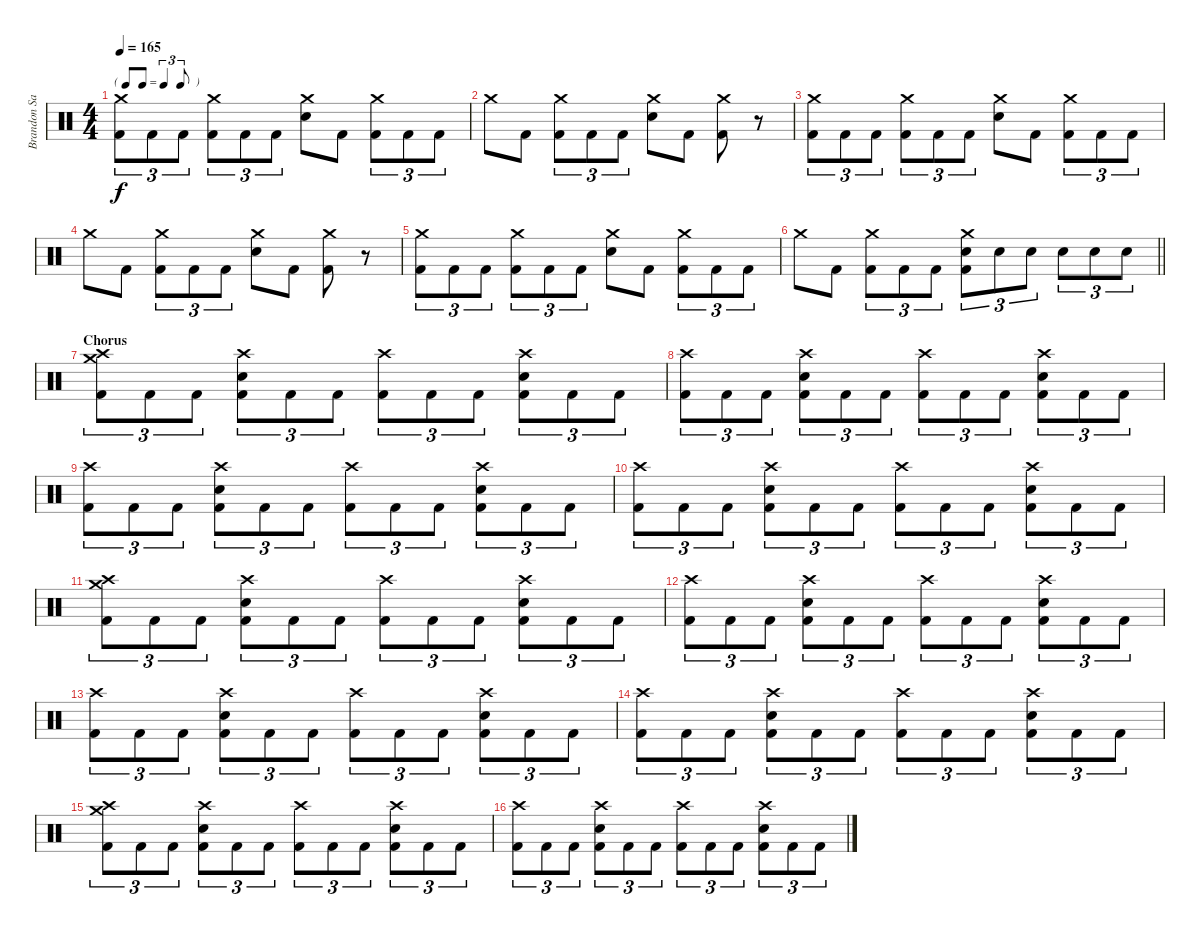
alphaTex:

\track ("Brandon Saller" "Brandon Sa") {instrument percussion}
\staff {score}
\articulation defaults
\ts (4 4)
\tf triplet8th
\tempo 165
\clef neutral
\ks c
("Crash medium (hit)" "Kick (hit) 2").8{tu (3 2) dy f} "Kick (hit) 2".8{tu (3 2)} "Kick (hit) 2".8{tu (3 2)} ("Crash medium (hit)" "Kick (hit) 2").8{tu (3 2)} "Kick (hit) 2".8{tu (3 2)} "Kick (hit) 2".8{tu (3 2)} ("Crash medium (hit)" "Electric Snare (hit)").8 "Kick (hit) 2".8 ("Crash medium (hit)" "Kick (hit) 2").8{tu (3 2)} "Kick (hit) 2".8{tu (3 2)} "Kick (hit) 2".8{tu (3 2)} |
"Crash medium (hit)".8 "Kick (hit) 2".8 ("Crash medium (hit)" "Kick (hit) 2").8{tu (3 2)} "Kick (hit) 2".8{tu (3 2)} "Kick (hit) 2".8{tu (3 2)} ("Crash medium (hit)" "Electric Snare (hit)").8 "Kick (hit) 2".8 ("Crash medium (hit)" "Kick (hit) 2").8 r.8 |
("Crash medium (hit)" "Kick (hit) 2").8{tu (3 2)} "Kick (hit) 2".8{tu (3 2)} "Kick (hit) 2".8{tu (3 2)} ("Crash medium (hit)" "Kick (hit) 2").8{tu (3 2)} "Kick (hit) 2".8{tu (3 2)} "Kick (hit) 2".8{tu (3 2)} ("Crash medium (hit)" "Electric Snare (hit)").8 "Kick (hit) 2".8 ("Crash medium (hit)" "Kick (hit) 2").8{tu (3 2)} "Kick (hit) 2".8{tu (3 2)} "Kick (hit) 2".8{tu (3 2)} |
"Crash medium (hit)".8 "Kick (hit) 2".8 ("Crash medium (hit)" "Kick (hit) 2").8{tu (3 2)} "Kick (hit) 2".8{tu (3 2)} "Kick (hit) 2".8{tu (3 2)} ("Crash medium (hit)" "Electric Snare (hit)").8 "Kick (hit) 2".8 ("Crash medium (hit)" "Kick (hit) 2").8 r.8 |
("Crash medium (hit)" "Kick (hit) 2").8{tu (3 2)} "Kick (hit) 2".8{tu (3 2)} "Kick (hit) 2".8{tu (3 2)} ("Crash medium (hit)" "Kick (hit) 2").8{tu (3 2)} "Kick (hit) 2".8{tu (3 2)} "Kick (hit) 2".8{tu (3 2)} ("Crash medium (hit)" "Electric Snare (hit)").8 "Kick (hit) 2".8 ("Crash medium (hit)" "Kick (hit) 2").8{tu (3 2)} "Kick (hit) 2".8{tu (3 2)} "Kick (hit) 2".8{tu (3 2)} |
\barLineRight lightlight "Crash medium (hit)".8 "Kick (hit) 2".8
("Crash medium (hit)" "Kick (hit) 2").8{tu (3 2)} "Kick (hit) 2".8{tu (3 2)} "Kick (hit) 2".8{tu (3 2)} ("Crash medium (hit)" "Electric Snare (hit)" "Kick (hit) 2").8{tu (3 2)} "Electric Snare (hit)".8{tu (3 2)} "Electric Snare (hit)".8{tu (3 2)} "Electric Snare (hit)".8{tu (3 2)} "Electric Snare (hit)".8{tu (3 2)} "Electric Snare (hit)".8{tu (3 2)} |
\section ("" "Chorus")
("Crash high (hit)" "Crash medium (hit)" "Kick (hit) 2").8{tu (3 2)} "Kick (hit) 2".8{tu (3 2)} "Kick (hit) 2".8{tu (3 2)} ("Crash high (hit)" "Electric Snare (hit)" "Kick (hit) 2").8{tu (3 2)} "Kick (hit) 2".8{tu (3 2)} "Kick (hit) 2".8{tu (3 2)} ("Crash high (hit)" "Kick (hit) 2").8{tu (3 2)} "Kick (hit) 2".8{tu (3 2)} "Kick (hit) 2".8{tu (3 2)} ("Crash high (hit)" "Electric Snare (hit)" "Kick (hit) 2").8{tu (3 2)} "Kick (hit) 2".8{tu (3 2)} "Kick (hit) 2".8{tu (3 2)} |
("Crash high (hit)" "Kick (hit) 2").8{tu (3 2)} "Kick (hit) 2".8{tu (3 2)} "Kick (hit) 2".8{tu (3 2)} ("Crash high (hit)" "Electric Snare (hit)" "Kick (hit) 2").8{tu (3 2)} "Kick (hit) 2".8{tu (3 2)} "Kick (hit) 2".8{tu (3 2)} ("Crash high (hit)" "Kick (hit) 2").8{tu (3 2)} "Kick (hit) 2".8{tu (3 2)} "Kick (hit) 2".8{tu (3 2)} ("Crash high (hit)" "Electric Snare (hit)" "Kick (hit) 2").8{tu (3 2)} "Kick (hit) 2".8{tu (3 2)} "Kick (hit) 2".8{tu (3 2)} |
("Crash high (hit)" "Kick (hit) 2").8{tu (3 2)} "Kick (hit) 2".8{tu (3 2)} "Kick (hit) 2".8{tu (3 2)} ("Crash high (hit)" "Electric Snare (hit)" "Kick (hit) 2").8{tu (3 2)} "Kick (hit) 2".8{tu (3 2)} "Kick (hit) 2".8{tu (3 2)} ("Crash high (hit)" "Kick (hit) 2").8{tu (3 2)} "Kick (hit) 2".8{tu (3 2)} "Kick (hit) 2".8{tu (3 2)} ("Crash high (hit)" "Electric Snare (hit)" "Kick (hit) 2").8{tu (3 2)} "Kick (hit) 2".8{tu (3 2)} "Kick (hit) 2".8{tu (3 2)} |
("Crash high (hit)" "Kick (hit) 2").8{tu (3 2)} "Kick (hit) 2".8{tu (3 2)} "Kick (hit) 2".8{tu (3 2)} ("Crash high (hit)" "Electric Snare (hit)" "Kick (hit) 2").8{tu (3 2)} "Kick (hit) 2".8{tu (3 2)} "Kick (hit) 2".8{tu (3 2)} ("Crash high (hit)" "Kick (hit) 2").8{tu (3 2)} "Kick (hit) 2".8{tu (3 2)} "Kick (hit) 2".8{tu (3 2)} ("Crash high (hit)" "Electric Snare (hit)" "Kick (hit) 2").8{tu (3 2)} "Kick (hit) 2".8{tu (3 2)} "Kick (hit) 2".8{tu (3 2)} |
("Crash high (hit)" "Crash medium (hit)" "Kick (hit) 2").8{tu (3 2)} "Kick (hit) 2".8{tu (3 2)} "Kick (hit) 2".8{tu (3 2)} ("Crash high (hit)" "Electric Snare (hit)" "Kick (hit) 2").8{tu (3 2)} "Kick (hit) 2".8{tu (3 2)} "Kick (hit) 2".8{tu (3 2)} ("Crash high (hit)" "Kick (hit) 2").8{tu (3 2)} "Kick (hit) 2".8{tu (3 2)} "Kick (hit) 2".8{tu (3 2)} ("Crash high (hit)" "Electric Snare (hit)" "Kick (hit) 2").8{tu (3 2)} "Kick (hit) 2".8{tu (3 2)} "Kick (hit) 2".8{tu (3 2)} |
("Crash high (hit)" "Kick (hit) 2").8{tu (3 2)} "Kick (hit) 2".8{tu (3 2)} "Kick (hit) 2".8{tu (3 2)} ("Crash high (hit)" "Electric Snare (hit)" "Kick (hit) 2").8{tu (3 2)} "Kick (hit) 2".8{tu (3 2)} "Kick (hit) 2".8{tu (3 2)} ("Crash high (hit)" "Kick (hit) 2").8{tu (3 2)} "Kick (hit) 2".8{tu (3 2)} "Kick (hit) 2".8{tu (3 2)} ("Crash high (hit)" "Electric Snare (hit)" "Kick (hit) 2").8{tu (3 2)} "Kick (hit) 2".8{tu (3 2)} "Kick (hit) 2".8{tu (3 2)} |
("Crash high (hit)" "Kick (hit) 2").8{tu (3 2)} "Kick (hit) 2".8{tu (3 2)} "Kick (hit) 2".8{tu (3 2)} ("Crash high (hit)" "Electric Snare (hit)" "Kick (hit) 2").8{tu (3 2)} "Kick (hit) 2".8{tu (3 2)} "Kick (hit) 2".8{tu (3 2)} ("Crash high (hit)" "Kick (hit) 2").8{tu (3 2)} "Kick (hit) 2".8{tu (3 2)} "Kick (hit) 2".8{tu (3 2)} ("Crash high (hit)" "Electric Snare (hit)" "Kick (hit) 2").8{tu (3 2)} "Kick (hit) 2".8{tu (3 2)} "Kick (hit) 2".8{tu (3 2)} |
("Crash high (hit)" "Kick (hit) 2").8{tu (3 2)} "Kick (hit) 2".8{tu (3 2)} "Kick (hit) 2".8{tu (3 2)} ("Crash high (hit)" "Electric Snare (hit)" "Kick (hit) 2").8{tu (3 2)} "Kick (hit) 2".8{tu (3 2)} "Kick (hit) 2".8{tu (3 2)} ("Crash high (hit)" "Kick (hit) 2").8{tu (3 2)} "Kick (hit) 2".8{tu (3 2)} "Kick (hit) 2".8{tu (3 2)} ("Crash high (hit)" "Electric Snare (hit)" "Kick (hit) 2").8{tu (3 2)} "Kick (hit) 2".8{tu (3 2)} "Kick (hit) 2".8{tu (3 2)} |
("Crash high (hit)" "Crash medium (hit)" "Kick (hit) 2").8{tu (3 2)} "Kick (hit) 2".8{tu (3 2)} "Kick (hit) 2".8{tu (3 2)} ("Crash high (hit)" "Electric Snare (hit)" "Kick (hit) 2").8{tu (3 2)} "Kick (hit) 2".8{tu (3 2)} "Kick (hit) 2".8{tu (3 2)} ("Crash high (hit)" "Kick (hit) 2").8{tu (3 2)} "Kick (hit) 2".8{tu (3 2)} "Kick (hit) 2".8{tu (3 2)} ("Crash high (hit)" "Electric Snare (hit)" "Kick (hit) 2").8{tu (3 2)} "Kick (hit) 2".8{tu (3 2)} "Kick (hit) 2".8{tu (3 2)} |
("Crash high (hit)" "Kick (hit) 2").8{tu (3 2)} "Kick (hit) 2".8{tu (3 2)} "Kick (hit) 2".8{tu (3 2)} ("Crash high (hit)" "Electric Snare (hit)" "Kick (hit) 2").8{tu (3 2)} "Kick (hit) 2".8{tu (3 2)} "Kick (hit) 2".8{tu (3 2)} ("Crash high (hit)" "Kick (hit) 2").8{tu (3 2)} "Kick (hit) 2".8{tu (3 2)} "Kick (hit) 2".8{tu (3 2)} ("Crash high (hit)" "Electric Snare (hit)" "Kick (hit) 2").8{tu (3 2)} "Kick (hit) 2".8{tu (3 2)} "Kick (hit) 2".8{tu (3 2)}
